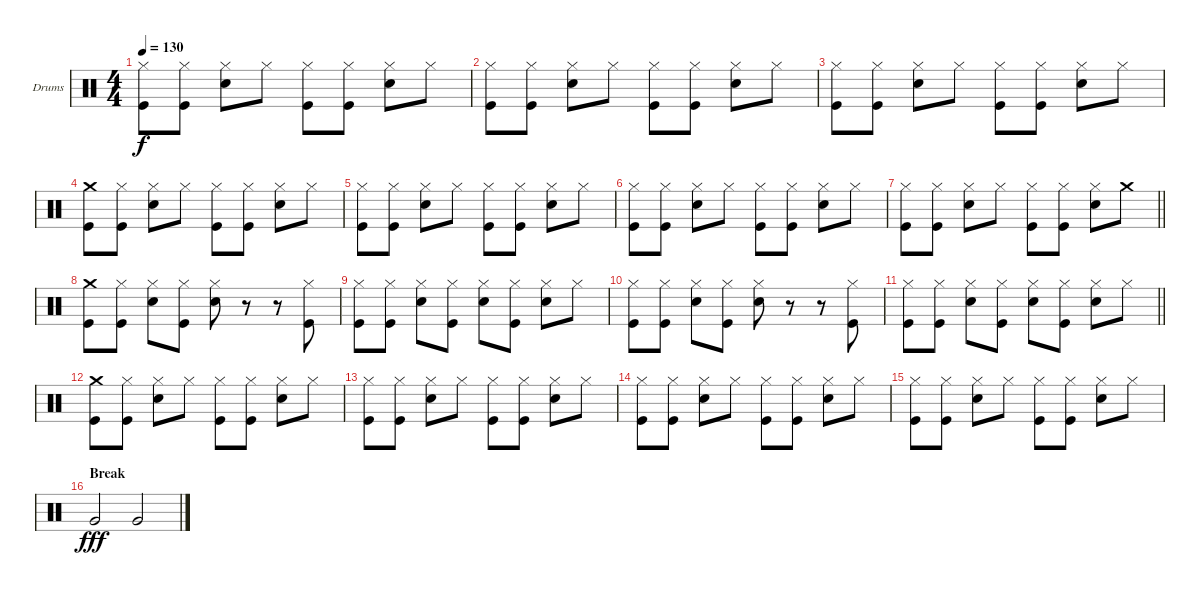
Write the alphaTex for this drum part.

\defaultSystemsLayout 4
\bracketExtendMode groupsimilarinstruments
\firstSystemTrackNameOrientation horizontal
\otherSystemsTrackNameOrientation horizontal
\track ("Drumkit" "Drums") {instrument percussion}
\staff {score}
\articulation defaults
\ts (4 4)
\tempo 130
\clef neutral
\ks aminor
("Kick (hit)" "Hi-Hat (closed)").8{dy f} ("Kick (hit)" "Hi-Hat (closed)").8 ("Snare (hit) 2" "Hi-Hat (closed)").8 "Hi-Hat (closed)".8 ("Kick (hit)" "Hi-Hat (closed)").8 ("Kick (hit)" "Hi-Hat (closed)").8 ("Snare (hit) 2" "Hi-Hat (closed)").8 "Hi-Hat (closed)".8 |
("Kick (hit)" "Hi-Hat (closed)").8 ("Kick (hit)" "Hi-Hat (closed)").8 ("Snare (hit) 2" "Hi-Hat (closed)").8 "Hi-Hat (closed)".8 ("Kick (hit)" "Hi-Hat (closed)").8 ("Kick (hit)" "Hi-Hat (closed)").8 ("Snare (hit) 2" "Hi-Hat (closed)").8 "Hi-Hat (closed)".8 |
("Kick (hit)" "Hi-Hat (closed)").8 ("Kick (hit)" "Hi-Hat (closed)").8 ("Snare (hit) 2" "Hi-Hat (closed)").8 "Hi-Hat (closed)".8 ("Kick (hit)" "Hi-Hat (closed)").8 ("Kick (hit)" "Hi-Hat (closed)").8 ("Snare (hit) 2" "Hi-Hat (closed)").8 "Hi-Hat (closed)".8 |
("Kick (hit)" "Crash medium (hit)").8 ("Kick (hit)" "Hi-Hat (closed)").8 ("Snare (hit) 2" "Hi-Hat (closed)").8 "Hi-Hat (closed)".8 ("Kick (hit)" "Hi-Hat (closed)").8 ("Kick (hit)" "Hi-Hat (closed)").8 ("Snare (hit) 2" "Hi-Hat (closed)").8 "Hi-Hat (closed)".8 |
("Kick (hit)" "Hi-Hat (closed)").8 ("Kick (hit)" "Hi-Hat (closed)").8 ("Snare (hit) 2" "Hi-Hat (closed)").8 "Hi-Hat (closed)".8 ("Kick (hit)" "Hi-Hat (closed)").8 ("Kick (hit)" "Hi-Hat (closed)").8 ("Snare (hit) 2" "Hi-Hat (closed)").8 "Hi-Hat (closed)".8 |
("Kick (hit)" "Hi-Hat (closed)").8 ("Kick (hit)" "Hi-Hat (closed)").8 ("Snare (hit) 2" "Hi-Hat (closed)").8 "Hi-Hat (closed)".8 ("Kick (hit)" "Hi-Hat (closed)").8 ("Kick (hit)" "Hi-Hat (closed)").8 ("Snare (hit) 2" "Hi-Hat (closed)").8 "Hi-Hat (closed)".8 |
\barLineRight lightlight
("Kick (hit)" "Hi-Hat (closed)").8 ("Kick (hit)" "Hi-Hat (closed)").8 ("Snare (hit) 2" "Hi-Hat (closed)").8 "Hi-Hat (closed)".8 ("Kick (hit)" "Hi-Hat (closed)").8 ("Kick (hit)" "Hi-Hat (closed)").8 ("Snare (hit) 2" "Hi-Hat (closed)").8 "Crash medium (hit)".8 |
("Kick (hit)" "Crash medium (hit)").8 ("Kick (hit)" "Hi-Hat (closed)").8 ("Snare (hit) 2" "Hi-Hat (closed)").8 ("Kick (hit)" "Hi-Hat (closed)").8 ("Snare (hit) 2" "Hi-Hat (closed)").8 r.8 r.8 ("Kick (hit)" "Hi-Hat (closed)").8 |
("Kick (hit)" "Hi-Hat (closed)").8 ("Kick (hit)" "Hi-Hat (closed)").8 ("Snare (hit) 2" "Hi-Hat (closed)").8 ("Kick (hit)" "Hi-Hat (closed)").8 ("Snare (hit) 2" "Hi-Hat (closed)").8 ("Kick (hit)" "Hi-Hat (closed)").8 ("Snare (hit) 2" "Hi-Hat (closed)").8 "Hi-Hat (closed)".8 |
("Kick (hit)" "Hi-Hat (closed)").8 ("Kick (hit)" "Hi-Hat (closed)").8 ("Snare (hit) 2" "Hi-Hat (closed)").8 ("Kick (hit)" "Hi-Hat (closed)").8 ("Snare (hit) 2" "Hi-Hat (closed)").8 r.8 r.8 ("Kick (hit)" "Hi-Hat (closed)").8 |
\barLineRight lightlight
("Kick (hit)" "Hi-Hat (closed)").8 ("Kick (hit)" "Hi-Hat (closed)").8 ("Snare (hit) 2" "Hi-Hat (closed)").8 ("Kick (hit)" "Hi-Hat (closed)").8 ("Snare (hit) 2" "Hi-Hat (closed)").8 ("Kick (hit)" "Hi-Hat (closed)").8 ("Snare (hit) 2" "Hi-Hat (closed)").8 "Hi-Hat (closed)".8 |
("Kick (hit)" "Crash medium (hit)").8 ("Kick (hit)" "Hi-Hat (closed)").8 ("Snare (hit) 2" "Hi-Hat (closed)").8 "Hi-Hat (closed)".8 ("Kick (hit)" "Hi-Hat (closed)").8 ("Kick (hit)" "Hi-Hat (closed)").8 ("Snare (hit) 2" "Hi-Hat (closed)").8 "Hi-Hat (closed)".8 |
("Kick (hit)" "Hi-Hat (closed)").8 ("Kick (hit)" "Hi-Hat (closed)").8 ("Snare (hit) 2" "Hi-Hat (closed)").8 "Hi-Hat (closed)".8 ("Kick (hit)" "Hi-Hat (closed)").8 ("Kick (hit)" "Hi-Hat (closed)").8 ("Snare (hit) 2" "Hi-Hat (closed)").8 "Hi-Hat (closed)".8 |
("Kick (hit)" "Hi-Hat (closed)").8 ("Kick (hit)" "Hi-Hat (closed)").8 ("Snare (hit) 2" "Hi-Hat (closed)").8 "Hi-Hat (closed)".8 ("Kick (hit)" "Hi-Hat (closed)").8 ("Kick (hit)" "Hi-Hat (closed)").8 ("Snare (hit) 2" "Hi-Hat (closed)").8 "Hi-Hat (closed)".8 |
("Kick (hit)" "Hi-Hat (closed)").8 ("Kick (hit)" "Hi-Hat (closed)").8 ("Snare (hit) 2" "Hi-Hat (closed)").8 "Hi-Hat (closed)".8 ("Kick (hit)" "Hi-Hat (closed)").8 ("Kick (hit)" "Hi-Hat (closed)").8 ("Snare (hit) 2" "Hi-Hat (closed)").8 "Hi-Hat (closed)".8 |
\section ("" "Break")
"Very Low Tom (hit)".2{dy fff} "Very Low Tom (hit)".2
